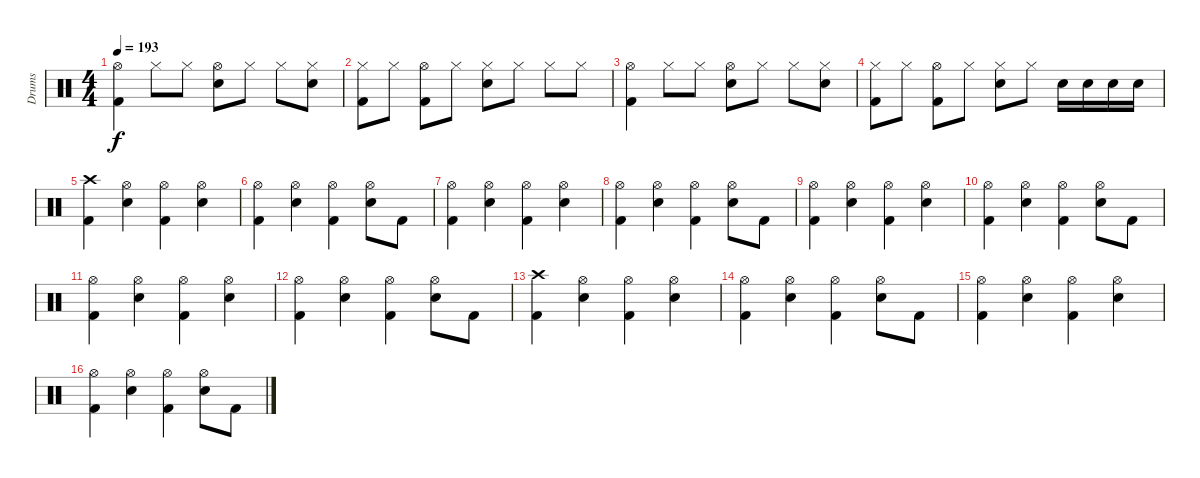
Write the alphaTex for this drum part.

\track ("Drums" "Drums") {instrument percussion}
\staff {score}
\articulation defaults
\ts (4 4)
\tempo 193
\clef neutral
\ks c
("Hi-Hat (open)" "Kick (hit) 2").4{dy f} "Hi-Hat (closed)".8 "Hi-Hat (closed)".8 ("Hi-Hat (open)" "Electric Snare (hit)").8 "Hi-Hat (closed)".8 "Hi-Hat (closed)".8 ("Hi-Hat (closed)" "Electric Snare (hit)").8 |
("Hi-Hat (closed)" "Kick (hit) 2").8 "Hi-Hat (closed)".8 ("Hi-Hat (open)" "Kick (hit) 2").8 "Hi-Hat (closed)".8 ("Hi-Hat (closed)" "Electric Snare (hit)").8 "Hi-Hat (closed)".8 "Hi-Hat (closed)".8 "Hi-Hat (closed)".8 |
("Hi-Hat (open)" "Kick (hit) 2").4 "Hi-Hat (closed)".8 "Hi-Hat (closed)".8 ("Hi-Hat (open)" "Electric Snare (hit)").8 "Hi-Hat (closed)".8 "Hi-Hat (closed)".8 ("Hi-Hat (closed)" "Electric Snare (hit)").8 |
("Hi-Hat (closed)" "Kick (hit) 2").8 "Hi-Hat (closed)".8 ("Hi-Hat (open)" "Kick (hit) 2").8 "Hi-Hat (closed)".8 ("Hi-Hat (closed)" "Electric Snare (hit)").8 "Hi-Hat (closed)".8 "Electric Snare (hit)".16 "Electric Snare (hit)".16 "Electric Snare (hit)".16 "Electric Snare (hit)".16 |
("Crash high (hit)" "Kick (hit) 2").4 ("Hi-Hat (open)" "Electric Snare (hit)").4 ("Hi-Hat (open)" "Kick (hit) 2").4 ("Hi-Hat (open)" "Electric Snare (hit)").4 |
("Hi-Hat (open)" "Kick (hit) 2").4 ("Hi-Hat (open)" "Electric Snare (hit)").4 ("Hi-Hat (open)" "Kick (hit) 2").4 ("Hi-Hat (open)" "Electric Snare (hit)").8 "Kick (hit) 2".8 |
("Hi-Hat (open)" "Kick (hit) 2").4 ("Hi-Hat (open)" "Electric Snare (hit)").4 ("Hi-Hat (open)" "Kick (hit) 2").4 ("Hi-Hat (open)" "Electric Snare (hit)").4 |
("Hi-Hat (open)" "Kick (hit) 2").4 ("Hi-Hat (open)" "Electric Snare (hit)").4 ("Hi-Hat (open)" "Kick (hit) 2").4 ("Hi-Hat (open)" "Electric Snare (hit)").8 "Kick (hit) 2".8 |
("Hi-Hat (open)" "Kick (hit) 2").4 ("Hi-Hat (open)" "Electric Snare (hit)").4 ("Hi-Hat (open)" "Kick (hit) 2").4 ("Hi-Hat (open)" "Electric Snare (hit)").4 |
("Hi-Hat (open)" "Kick (hit) 2").4 ("Hi-Hat (open)" "Electric Snare (hit)").4 ("Hi-Hat (open)" "Kick (hit) 2").4 ("Hi-Hat (open)" "Electric Snare (hit)").8 "Kick (hit) 2".8 |
("Hi-Hat (open)" "Kick (hit) 2").4 ("Hi-Hat (open)" "Electric Snare (hit)").4 ("Hi-Hat (open)" "Kick (hit) 2").4 ("Hi-Hat (open)" "Electric Snare (hit)").4 |
("Hi-Hat (open)" "Kick (hit) 2").4 ("Hi-Hat (open)" "Electric Snare (hit)").4 ("Hi-Hat (open)" "Kick (hit) 2").4 ("Hi-Hat (open)" "Electric Snare (hit)").8 "Kick (hit) 2".8 |
("Crash high (hit)" "Kick (hit) 2").4 ("Hi-Hat (open)" "Electric Snare (hit)").4 ("Hi-Hat (open)" "Kick (hit) 2").4 ("Hi-Hat (open)" "Electric Snare (hit)").4 |
("Hi-Hat (open)" "Kick (hit) 2").4 ("Hi-Hat (open)" "Electric Snare (hit)").4 ("Hi-Hat (open)" "Kick (hit) 2").4 ("Hi-Hat (open)" "Electric Snare (hit)").8 "Kick (hit) 2".8 |
("Hi-Hat (open)" "Kick (hit) 2").4 ("Hi-Hat (open)" "Electric Snare (hit)").4 ("Hi-Hat (open)" "Kick (hit) 2").4 ("Hi-Hat (open)" "Electric Snare (hit)").4 |
("Hi-Hat (open)" "Kick (hit) 2").4 ("Hi-Hat (open)" "Electric Snare (hit)").4 ("Hi-Hat (open)" "Kick (hit) 2").4 ("Hi-Hat (open)" "Electric Snare (hit)").8 "Kick (hit) 2".8
